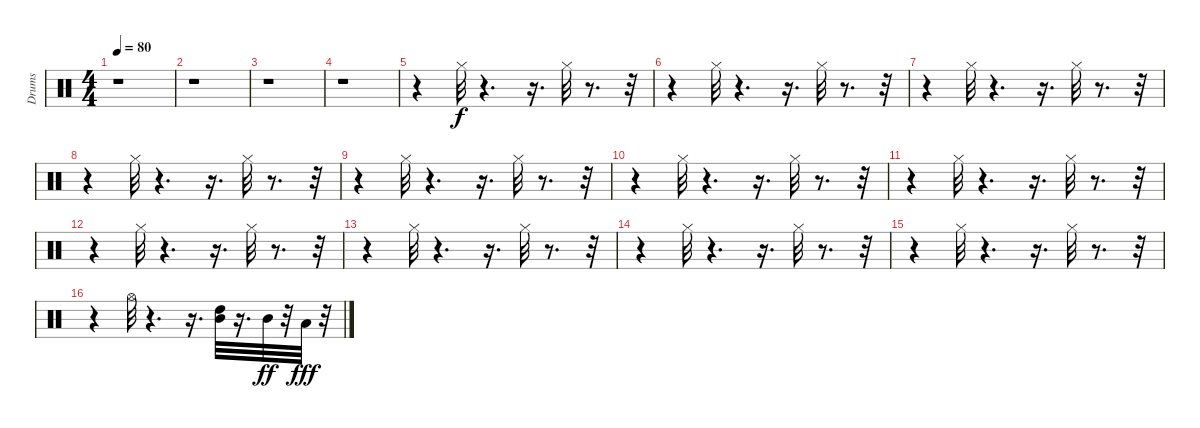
\track ("Drums" "Drums") {instrument percussion}
\staff {score}
\articulation defaults
\ts (4 4)
\tempo 80
\clef neutral
\ks c
r.1{dy f} |
r.1 |
r.1 |
r.1 |
r.4 "Hi-Hat (closed)".32 r.4{d} r.16{d} "Hi-Hat (closed)".32 r.8{d} r.32 |
r.4 "Hi-Hat (closed)".32 r.4{d} r.16{d} "Hi-Hat (closed)".32 r.8{d} r.32 |
r.4 "Hi-Hat (closed)".32 r.4{d} r.16{d} "Hi-Hat (closed)".32 r.8{d} r.32 |
r.4 "Hi-Hat (closed)".32 r.4{d} r.16{d} "Hi-Hat (closed)".32 r.8{d} r.32 |
r.4 "Hi-Hat (closed)".32 r.4{d} r.16{d} "Hi-Hat (closed)".32 r.8{d} r.32 |
r.4 "Hi-Hat (closed)".32 r.4{d} r.16{d} "Hi-Hat (closed)".32 r.8{d} r.32 |
r.4 "Hi-Hat (closed)".32 r.4{d} r.16{d} "Hi-Hat (closed)".32 r.8{d} r.32 |
r.4 "Hi-Hat (closed)".32 r.4{d} r.16{d} "Hi-Hat (closed)".32 r.8{d} r.32 |
r.4 "Hi-Hat (closed)".32 r.4{d} r.16{d} "Hi-Hat (closed)".32 r.8{d} r.32 |
r.4 "Hi-Hat (closed)".32 r.4{d} r.16{d} "Hi-Hat (closed)".32 r.8{d} r.32 |
r.4 "Hi-Hat (closed)".32 r.4{d} r.16{d} "Hi-Hat (closed)".32 r.8{d} r.32 |
r.4 "Hi-Hat (open)".32 r.4{d} r.16{d} ("Mid Tom (hit)" "High Tom (hit)").32 r.16{d} "Mid Tom (hit)".32{dy ff} r.32 "Low Tom (hit)".32{dy fff} r.32
